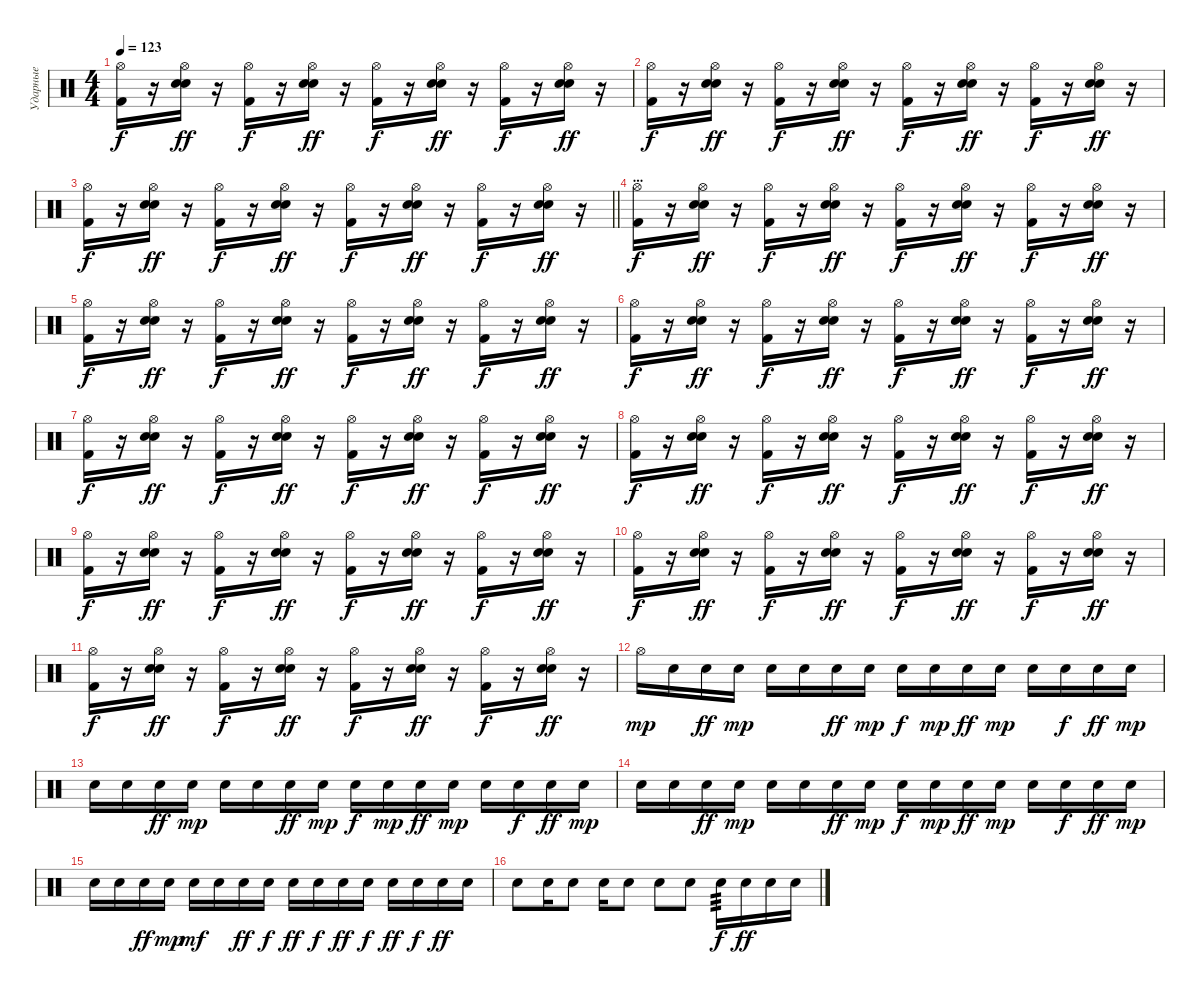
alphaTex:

\track ("Ударные" "Ударные") {instrument percussion}
\staff {score}
\articulation defaults
\ts (4 4)
\tempo 123
\clef neutral
\ks c
("Hi-Hat (open)" "Kick (hit) 2").16{dy f} r.16 ("Hi-Hat (open)" "Electric Snare (hit)" "Snare (hit) 2").16{dy ff} r.16 ("Hi-Hat (open)" "Kick (hit) 2").16{dy f} r.16 ("Hi-Hat (open)" "Electric Snare (hit)" "Snare (hit) 2").16{dy ff} r.16 ("Hi-Hat (open)" "Kick (hit) 2").16{dy f} r.16 ("Hi-Hat (open)" "Electric Snare (hit)" "Snare (hit) 2").16{dy ff} r.16 ("Hi-Hat (open)" "Kick (hit) 2").16{dy f} r.16 ("Hi-Hat (open)" "Electric Snare (hit)" "Snare (hit) 2").16{dy ff} r.16 |
("Hi-Hat (open)" "Kick (hit) 2").16{dy f} r.16 ("Hi-Hat (open)" "Electric Snare (hit)" "Snare (hit) 2").16{dy ff} r.16 ("Hi-Hat (open)" "Kick (hit) 2").16{dy f} r.16 ("Hi-Hat (open)" "Electric Snare (hit)" "Snare (hit) 2").16{dy ff} r.16 ("Hi-Hat (open)" "Kick (hit) 2").16{dy f} r.16 ("Hi-Hat (open)" "Electric Snare (hit)" "Snare (hit) 2").16{dy ff} r.16 ("Hi-Hat (open)" "Kick (hit) 2").16{dy f} r.16 ("Hi-Hat (open)" "Electric Snare (hit)" "Snare (hit) 2").16{dy ff} r.16 |
\barLineRight lightlight
("Hi-Hat (open)" "Kick (hit) 2").16{dy f} r.16 ("Hi-Hat (open)" "Electric Snare (hit)" "Snare (hit) 2").16{dy ff} r.16 ("Hi-Hat (open)" "Kick (hit) 2").16{dy f} r.16 ("Hi-Hat (open)" "Electric Snare (hit)" "Snare (hit) 2").16{dy ff} r.16 ("Hi-Hat (open)" "Kick (hit) 2").16{dy f} r.16 ("Hi-Hat (open)" "Electric Snare (hit)" "Snare (hit) 2").16{dy ff} r.16 ("Hi-Hat (open)" "Kick (hit) 2").16{dy f} r.16 ("Hi-Hat (open)" "Electric Snare (hit)" "Snare (hit) 2").16{dy ff} r.16 |
\section ("" "...")
("Hi-Hat (open)" "Kick (hit) 2").16{dy f} r.16 ("Hi-Hat (open)" "Electric Snare (hit)" "Snare (hit) 2").16{dy ff} r.16 ("Hi-Hat (open)" "Kick (hit) 2").16{dy f} r.16 ("Hi-Hat (open)" "Electric Snare (hit)" "Snare (hit) 2").16{dy ff} r.16 ("Hi-Hat (open)" "Kick (hit) 2").16{dy f} r.16 ("Hi-Hat (open)" "Electric Snare (hit)" "Snare (hit) 2").16{dy ff} r.16 ("Hi-Hat (open)" "Kick (hit) 2").16{dy f} r.16 ("Hi-Hat (open)" "Electric Snare (hit)" "Snare (hit) 2").16{dy ff} r.16 |
("Hi-Hat (open)" "Kick (hit) 2").16{dy f} r.16 ("Hi-Hat (open)" "Electric Snare (hit)" "Snare (hit) 2").16{dy ff} r.16 ("Hi-Hat (open)" "Kick (hit) 2").16{dy f} r.16 ("Hi-Hat (open)" "Electric Snare (hit)" "Snare (hit) 2").16{dy ff} r.16 ("Hi-Hat (open)" "Kick (hit) 2").16{dy f} r.16 ("Hi-Hat (open)" "Electric Snare (hit)" "Snare (hit) 2").16{dy ff} r.16 ("Hi-Hat (open)" "Kick (hit) 2").16{dy f} r.16 ("Hi-Hat (open)" "Electric Snare (hit)" "Snare (hit) 2").16{dy ff} r.16 |
("Hi-Hat (open)" "Kick (hit) 2").16{dy f} r.16 ("Hi-Hat (open)" "Electric Snare (hit)" "Snare (hit) 2").16{dy ff} r.16 ("Hi-Hat (open)" "Kick (hit) 2").16{dy f} r.16 ("Hi-Hat (open)" "Electric Snare (hit)" "Snare (hit) 2").16{dy ff} r.16 ("Hi-Hat (open)" "Kick (hit) 2").16{dy f} r.16 ("Hi-Hat (open)" "Electric Snare (hit)" "Snare (hit) 2").16{dy ff} r.16 ("Hi-Hat (open)" "Kick (hit) 2").16{dy f} r.16 ("Hi-Hat (open)" "Electric Snare (hit)" "Snare (hit) 2").16{dy ff} r.16 |
("Hi-Hat (open)" "Kick (hit) 2").16{dy f} r.16 ("Hi-Hat (open)" "Electric Snare (hit)" "Snare (hit) 2").16{dy ff} r.16 ("Hi-Hat (open)" "Kick (hit) 2").16{dy f} r.16 ("Hi-Hat (open)" "Electric Snare (hit)" "Snare (hit) 2").16{dy ff} r.16 ("Hi-Hat (open)" "Kick (hit) 2").16{dy f} r.16 ("Hi-Hat (open)" "Electric Snare (hit)" "Snare (hit) 2").16{dy ff} r.16 ("Hi-Hat (open)" "Kick (hit) 2").16{dy f} r.16 ("Hi-Hat (open)" "Electric Snare (hit)" "Snare (hit) 2").16{dy ff} r.16 |
("Hi-Hat (open)" "Kick (hit) 2").16{dy f} r.16 ("Hi-Hat (open)" "Electric Snare (hit)" "Snare (hit) 2").16{dy ff} r.16 ("Hi-Hat (open)" "Kick (hit) 2").16{dy f} r.16 ("Hi-Hat (open)" "Electric Snare (hit)" "Snare (hit) 2").16{dy ff} r.16 ("Hi-Hat (open)" "Kick (hit) 2").16{dy f} r.16 ("Hi-Hat (open)" "Electric Snare (hit)" "Snare (hit) 2").16{dy ff} r.16 ("Hi-Hat (open)" "Kick (hit) 2").16{dy f} r.16 ("Hi-Hat (open)" "Electric Snare (hit)" "Snare (hit) 2").16{dy ff} r.16 |
("Hi-Hat (open)" "Kick (hit) 2").16{dy f} r.16 ("Hi-Hat (open)" "Electric Snare (hit)" "Snare (hit) 2").16{dy ff} r.16 ("Hi-Hat (open)" "Kick (hit) 2").16{dy f} r.16 ("Hi-Hat (open)" "Electric Snare (hit)" "Snare (hit) 2").16{dy ff} r.16 ("Hi-Hat (open)" "Kick (hit) 2").16{dy f} r.16 ("Hi-Hat (open)" "Electric Snare (hit)" "Snare (hit) 2").16{dy ff} r.16 ("Hi-Hat (open)" "Kick (hit) 2").16{dy f} r.16 ("Hi-Hat (open)" "Electric Snare (hit)" "Snare (hit) 2").16{dy ff} r.16 |
("Hi-Hat (open)" "Kick (hit) 2").16{dy f} r.16 ("Hi-Hat (open)" "Electric Snare (hit)" "Snare (hit) 2").16{dy ff} r.16 ("Hi-Hat (open)" "Kick (hit) 2").16{dy f} r.16 ("Hi-Hat (open)" "Electric Snare (hit)" "Snare (hit) 2").16{dy ff} r.16 ("Hi-Hat (open)" "Kick (hit) 2").16{dy f} r.16 ("Hi-Hat (open)" "Electric Snare (hit)" "Snare (hit) 2").16{dy ff} r.16 ("Hi-Hat (open)" "Kick (hit) 2").16{dy f} r.16 ("Hi-Hat (open)" "Electric Snare (hit)" "Snare (hit) 2").16{dy ff} r.16 |
("Hi-Hat (open)" "Kick (hit) 2").16{dy f} r.16 ("Hi-Hat (open)" "Electric Snare (hit)" "Snare (hit) 2").16{dy ff} r.16 ("Hi-Hat (open)" "Kick (hit) 2").16{dy f} r.16 ("Hi-Hat (open)" "Electric Snare (hit)" "Snare (hit) 2").16{dy ff} r.16 ("Hi-Hat (open)" "Kick (hit) 2").16{dy f} r.16 ("Hi-Hat (open)" "Electric Snare (hit)" "Snare (hit) 2").16{dy ff} r.16 ("Hi-Hat (open)" "Kick (hit) 2").16{dy f} r.16 ("Hi-Hat (open)" "Electric Snare (hit)" "Snare (hit) 2").16{dy ff} r.16 |
"Hi-Hat (open)".16{dy mp} "Snare (hit) 2".16 "Snare (hit) 2".16{dy ff} "Snare (hit) 2".16{dy mp} "Snare (hit) 2".16 "Snare (hit) 2".16 "Snare (hit) 2".16{dy ff} "Snare (hit) 2".16{dy mp} "Snare (hit) 2".16{dy f} "Snare (hit) 2".16{dy mp} "Snare (hit) 2".16{dy ff} "Snare (hit) 2".16{dy mp} "Snare (hit) 2".16 "Snare (hit) 2".16{dy f} "Snare (hit) 2".16{dy ff} "Snare (hit) 2".16{dy mp} |
"Snare (hit) 2".16 "Snare (hit) 2".16 "Snare (hit) 2".16{dy ff} "Snare (hit) 2".16{dy mp} "Snare (hit) 2".16 "Snare (hit) 2".16 "Snare (hit) 2".16{dy ff} "Snare (hit) 2".16{dy mp} "Snare (hit) 2".16{dy f} "Snare (hit) 2".16{dy mp} "Snare (hit) 2".16{dy ff} "Snare (hit) 2".16{dy mp} "Snare (hit) 2".16 "Snare (hit) 2".16{dy f} "Snare (hit) 2".16{dy ff} "Snare (hit) 2".16{dy mp} |
"Snare (hit) 2".16 "Snare (hit) 2".16 "Snare (hit) 2".16{dy ff} "Snare (hit) 2".16{dy mp} "Snare (hit) 2".16 "Snare (hit) 2".16 "Snare (hit) 2".16{dy ff} "Snare (hit) 2".16{dy mp} "Snare (hit) 2".16{dy f} "Snare (hit) 2".16{dy mp} "Snare (hit) 2".16{dy ff} "Snare (hit) 2".16{dy mp} "Snare (hit) 2".16 "Snare (hit) 2".16{dy f} "Snare (hit) 2".16{dy ff} "Snare (hit) 2".16{dy mp} |
"Snare (hit) 2".16 "Snare (hit) 2".16 "Snare (hit) 2".16{dy ff} "Snare (hit) 2".16{dy mp} "Snare (hit) 2".16{dy mf} "Snare (hit) 2".16 "Snare (hit) 2".16{dy ff} "Snare (hit) 2".16{dy f} "Snare (hit) 2".16{dy ff} "Snare (hit) 2".16{dy f} "Snare (hit) 2".16{dy ff} "Snare (hit) 2".16{dy f} "Snare (hit) 2".16{dy ff} "Snare (hit) 2".16{dy f} "Snare (hit) 2".16{dy ff} "Snare (hit) 2".16 |
"Snare (hit) 2".8 "Snare (hit) 2".16 "Snare (hit) 2".8 "Snare (hit) 2".16 "Snare (hit) 2".8 "Snare (hit) 2".8 "Snare (hit) 2".8 "Snare (hit) 2".16{tp 3 dy f} "Snare (hit) 2".16{dy ff} "Snare (hit) 2".16 "Snare (hit) 2".16
